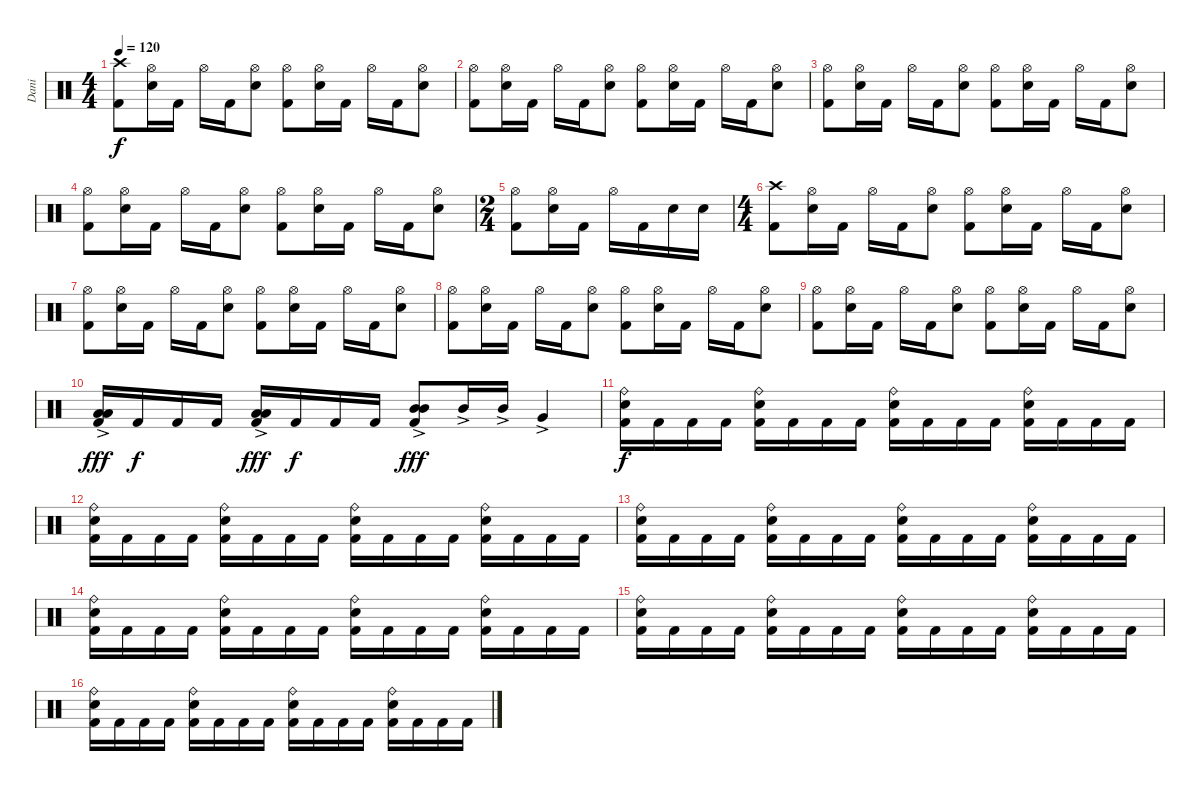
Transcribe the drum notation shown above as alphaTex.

\track ("Dani" "Dani") {instrument percussion}
\staff {score}
\articulation defaults
\ts (4 4)
\tempo 120
\clef neutral
\ks c
("Crash high (hit)" "Kick (hit) 2").8{dy f} ("Hi-Hat (open)" "Snare (hit) 2").16 "Kick (hit) 2".16 "Hi-Hat (open)".16 "Kick (hit) 2".16 ("Hi-Hat (open)" "Snare (hit) 2").8 ("Hi-Hat (open)" "Kick (hit) 2").8 ("Hi-Hat (open)" "Snare (hit) 2").16 "Kick (hit) 2".16 "Hi-Hat (open)".16 "Kick (hit) 2".16 ("Hi-Hat (open)" "Snare (hit) 2").8 |
("Hi-Hat (open)" "Kick (hit) 2").8 ("Hi-Hat (open)" "Snare (hit) 2").16 "Kick (hit) 2".16 "Hi-Hat (open)".16 "Kick (hit) 2".16 ("Hi-Hat (open)" "Snare (hit) 2").8 ("Hi-Hat (open)" "Kick (hit) 2").8 ("Hi-Hat (open)" "Snare (hit) 2").16 "Kick (hit) 2".16 "Hi-Hat (open)".16 "Kick (hit) 2".16 ("Hi-Hat (open)" "Snare (hit) 2").8 |
("Hi-Hat (open)" "Kick (hit) 2").8 ("Hi-Hat (open)" "Snare (hit) 2").16 "Kick (hit) 2".16 "Hi-Hat (open)".16 "Kick (hit) 2".16 ("Hi-Hat (open)" "Snare (hit) 2").8 ("Hi-Hat (open)" "Kick (hit) 2").8 ("Hi-Hat (open)" "Snare (hit) 2").16 "Kick (hit) 2".16 "Hi-Hat (open)".16 "Kick (hit) 2".16 ("Hi-Hat (open)" "Snare (hit) 2").8 |
("Hi-Hat (open)" "Kick (hit) 2").8 ("Hi-Hat (open)" "Snare (hit) 2").16 "Kick (hit) 2".16 "Hi-Hat (open)".16 "Kick (hit) 2".16 ("Hi-Hat (open)" "Snare (hit) 2").8 ("Hi-Hat (open)" "Kick (hit) 2").8 ("Hi-Hat (open)" "Snare (hit) 2").16 "Kick (hit) 2".16 "Hi-Hat (open)".16 "Kick (hit) 2".16 ("Hi-Hat (open)" "Snare (hit) 2").8 |
\ts (2 4)
("Hi-Hat (open)" "Kick (hit) 2").8 ("Hi-Hat (open)" "Snare (hit) 2").16 "Kick (hit) 2".16 "Hi-Hat (open)".16 "Kick (hit) 2".16 "Snare (hit) 2".16 "Snare (hit) 2".16 |
\ts (4 4)
("Crash high (hit)" "Kick (hit) 2").8 ("Hi-Hat (open)" "Snare (hit) 2").16 "Kick (hit) 2".16 "Hi-Hat (open)".16 "Kick (hit) 2".16 ("Hi-Hat (open)" "Snare (hit) 2").8 ("Hi-Hat (open)" "Kick (hit) 2").8 ("Hi-Hat (open)" "Snare (hit) 2").16 "Kick (hit) 2".16 "Hi-Hat (open)".16 "Kick (hit) 2".16 ("Hi-Hat (open)" "Snare (hit) 2").8 |
("Hi-Hat (open)" "Kick (hit) 2").8 ("Hi-Hat (open)" "Snare (hit) 2").16 "Kick (hit) 2".16 "Hi-Hat (open)".16 "Kick (hit) 2".16 ("Hi-Hat (open)" "Snare (hit) 2").8 ("Hi-Hat (open)" "Kick (hit) 2").8 ("Hi-Hat (open)" "Snare (hit) 2").16 "Kick (hit) 2".16 "Hi-Hat (open)".16 "Kick (hit) 2".16 ("Hi-Hat (open)" "Snare (hit) 2").8 |
("Hi-Hat (open)" "Kick (hit) 2").8 ("Hi-Hat (open)" "Snare (hit) 2").16 "Kick (hit) 2".16 "Hi-Hat (open)".16 "Kick (hit) 2".16 ("Hi-Hat (open)" "Snare (hit) 2").8 ("Hi-Hat (open)" "Kick (hit) 2").8 ("Hi-Hat (open)" "Snare (hit) 2").16 "Kick (hit) 2".16 "Hi-Hat (open)".16 "Kick (hit) 2".16 ("Hi-Hat (open)" "Snare (hit) 2").8 |
("Hi-Hat (open)" "Kick (hit) 2").8 ("Hi-Hat (open)" "Snare (hit) 2").16 "Kick (hit) 2".16 "Hi-Hat (open)".16 "Kick (hit) 2".16 ("Hi-Hat (open)" "Snare (hit) 2").8 ("Hi-Hat (open)" "Kick (hit) 2").8 ("Hi-Hat (open)" "Snare (hit) 2").16 "Kick (hit) 2".16 "Hi-Hat (open)".16 "Kick (hit) 2".16 ("Hi-Hat (open)" "Snare (hit) 2").8 |
("Low Tom (hit)"{ac} "Low Tom (hit)"{ac} "Kick (hit) 2").16{bd 240 dy fff} "Kick (hit) 2".16{dy f} "Kick (hit) 2".16 "Kick (hit) 2".16 ("Low Tom (hit)"{ac} "Low Tom (hit)"{ac} "Kick (hit) 2").16{bd 240 dy fff} "Kick (hit) 2".16{dy f} "Kick (hit) 2".16 "Kick (hit) 2".16 ("Mid Tom (hit)"{ac} "Mid Tom (hit)"{ac} "Kick (hit) 2").8{bd 240 dy fff} "Mid Tom (hit)"{ac}.16 "Mid Tom (hit)"{ac}.16 "Very Low Tom (hit)"{ac}.4 |
("Ride (bell)" "Snare (hit) 2" "Kick (hit) 2").16{dy f} "Kick (hit) 2".16 "Kick (hit) 2".16 "Kick (hit) 2".16 ("Ride (bell)" "Snare (hit) 2" "Kick (hit) 2").16 "Kick (hit) 2".16 "Kick (hit) 2".16 "Kick (hit) 2".16 ("Ride (bell)" "Snare (hit) 2" "Kick (hit) 2").16 "Kick (hit) 2".16 "Kick (hit) 2".16 "Kick (hit) 2".16 ("Ride (bell)" "Snare (hit) 2" "Kick (hit) 2").16 "Kick (hit) 2".16 "Kick (hit) 2".16 "Kick (hit) 2".16 |
("Ride (bell)" "Snare (hit) 2" "Kick (hit) 2").16 "Kick (hit) 2".16 "Kick (hit) 2".16 "Kick (hit) 2".16 ("Ride (bell)" "Snare (hit) 2" "Kick (hit) 2").16 "Kick (hit) 2".16 "Kick (hit) 2".16 "Kick (hit) 2".16 ("Ride (bell)" "Snare (hit) 2" "Kick (hit) 2").16 "Kick (hit) 2".16 "Kick (hit) 2".16 "Kick (hit) 2".16 ("Ride (bell)" "Snare (hit) 2" "Kick (hit) 2").16 "Kick (hit) 2".16 "Kick (hit) 2".16 "Kick (hit) 2".16 |
("Ride (bell)" "Snare (hit) 2" "Kick (hit) 2").16 "Kick (hit) 2".16 "Kick (hit) 2".16 "Kick (hit) 2".16 ("Ride (bell)" "Snare (hit) 2" "Kick (hit) 2").16 "Kick (hit) 2".16 "Kick (hit) 2".16 "Kick (hit) 2".16 ("Ride (bell)" "Snare (hit) 2" "Kick (hit) 2").16 "Kick (hit) 2".16 "Kick (hit) 2".16 "Kick (hit) 2".16 ("Ride (bell)" "Snare (hit) 2" "Kick (hit) 2").16 "Kick (hit) 2".16 "Kick (hit) 2".16 "Kick (hit) 2".16 |
("Ride (bell)" "Snare (hit) 2" "Kick (hit) 2").16 "Kick (hit) 2".16 "Kick (hit) 2".16 "Kick (hit) 2".16 ("Ride (bell)" "Snare (hit) 2" "Kick (hit) 2").16 "Kick (hit) 2".16 "Kick (hit) 2".16 "Kick (hit) 2".16 ("Ride (bell)" "Snare (hit) 2" "Kick (hit) 2").16 "Kick (hit) 2".16 "Kick (hit) 2".16 "Kick (hit) 2".16 ("Ride (bell)" "Snare (hit) 2" "Kick (hit) 2").16 "Kick (hit) 2".16 "Kick (hit) 2".16 "Kick (hit) 2".16 |
("Ride (bell)" "Snare (hit) 2" "Kick (hit) 2").16 "Kick (hit) 2".16 "Kick (hit) 2".16 "Kick (hit) 2".16 ("Ride (bell)" "Snare (hit) 2" "Kick (hit) 2").16 "Kick (hit) 2".16 "Kick (hit) 2".16 "Kick (hit) 2".16 ("Ride (bell)" "Snare (hit) 2" "Kick (hit) 2").16 "Kick (hit) 2".16 "Kick (hit) 2".16 "Kick (hit) 2".16 ("Ride (bell)" "Snare (hit) 2" "Kick (hit) 2").16 "Kick (hit) 2".16 "Kick (hit) 2".16 "Kick (hit) 2".16 |
("Ride (bell)" "Snare (hit) 2" "Kick (hit) 2").16 "Kick (hit) 2".16 "Kick (hit) 2".16 "Kick (hit) 2".16 ("Ride (bell)" "Snare (hit) 2" "Kick (hit) 2").16 "Kick (hit) 2".16 "Kick (hit) 2".16 "Kick (hit) 2".16 ("Ride (bell)" "Snare (hit) 2" "Kick (hit) 2").16 "Kick (hit) 2".16 "Kick (hit) 2".16 "Kick (hit) 2".16 ("Ride (bell)" "Snare (hit) 2" "Kick (hit) 2").16 "Kick (hit) 2".16 "Kick (hit) 2".16 "Kick (hit) 2".16
